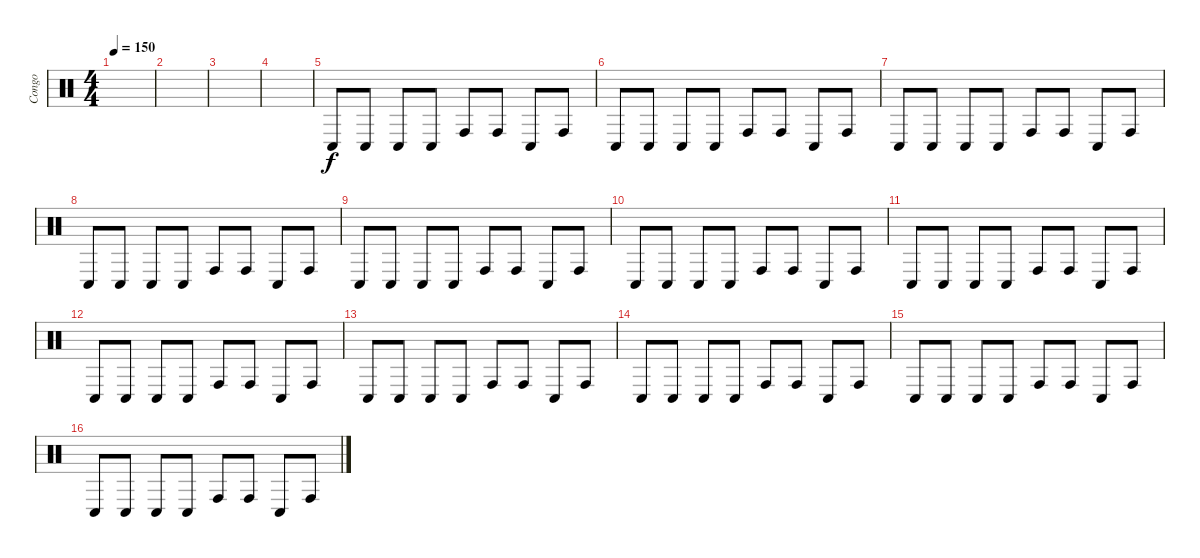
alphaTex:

\track ("Congo" "Congo") {instrument percussion}
\staff {score}
\articulation defaults
\ts (4 4)
\tempo 150
\clef neutral
\ks c
|
|
|
|
"Conga low (hit)".8 "Conga low (hit)".8 "Conga low (hit)".8 "Conga low (hit)".8 "Conga high (hit)".8 "Conga high (hit)".8 "Conga low (hit)".8 "Conga high (hit)".8 |
"Conga low (hit)".8 "Conga low (hit)".8 "Conga low (hit)".8 "Conga low (hit)".8 "Conga high (hit)".8 "Conga high (hit)".8 "Conga low (hit)".8 "Conga high (hit)".8 |
"Conga low (hit)".8 "Conga low (hit)".8 "Conga low (hit)".8 "Conga low (hit)".8 "Conga high (hit)".8 "Conga high (hit)".8 "Conga low (hit)".8 "Conga high (hit)".8 |
"Conga low (hit)".8 "Conga low (hit)".8 "Conga low (hit)".8 "Conga low (hit)".8 "Conga high (hit)".8 "Conga high (hit)".8 "Conga low (hit)".8 "Conga high (hit)".8 |
"Conga low (hit)".8 "Conga low (hit)".8 "Conga low (hit)".8 "Conga low (hit)".8 "Conga high (hit)".8 "Conga high (hit)".8 "Conga low (hit)".8 "Conga high (hit)".8 |
"Conga low (hit)".8 "Conga low (hit)".8 "Conga low (hit)".8 "Conga low (hit)".8 "Conga high (hit)".8 "Conga high (hit)".8 "Conga low (hit)".8 "Conga high (hit)".8 |
"Conga low (hit)".8 "Conga low (hit)".8 "Conga low (hit)".8 "Conga low (hit)".8 "Conga high (hit)".8 "Conga high (hit)".8 "Conga low (hit)".8 "Conga high (hit)".8 |
"Conga low (hit)".8 "Conga low (hit)".8 "Conga low (hit)".8 "Conga low (hit)".8 "Conga high (hit)".8 "Conga high (hit)".8 "Conga low (hit)".8 "Conga high (hit)".8 |
"Conga low (hit)".8 "Conga low (hit)".8 "Conga low (hit)".8 "Conga low (hit)".8 "Conga high (hit)".8 "Conga high (hit)".8 "Conga low (hit)".8 "Conga high (hit)".8 |
"Conga low (hit)".8 "Conga low (hit)".8 "Conga low (hit)".8 "Conga low (hit)".8 "Conga high (hit)".8 "Conga high (hit)".8 "Conga low (hit)".8 "Conga high (hit)".8 |
"Conga low (hit)".8 "Conga low (hit)".8 "Conga low (hit)".8 "Conga low (hit)".8 "Conga high (hit)".8 "Conga high (hit)".8 "Conga low (hit)".8 "Conga high (hit)".8 |
"Conga low (hit)".8 "Conga low (hit)".8 "Conga low (hit)".8 "Conga low (hit)".8 "Conga high (hit)".8 "Conga high (hit)".8 "Conga low (hit)".8 "Conga high (hit)".8
